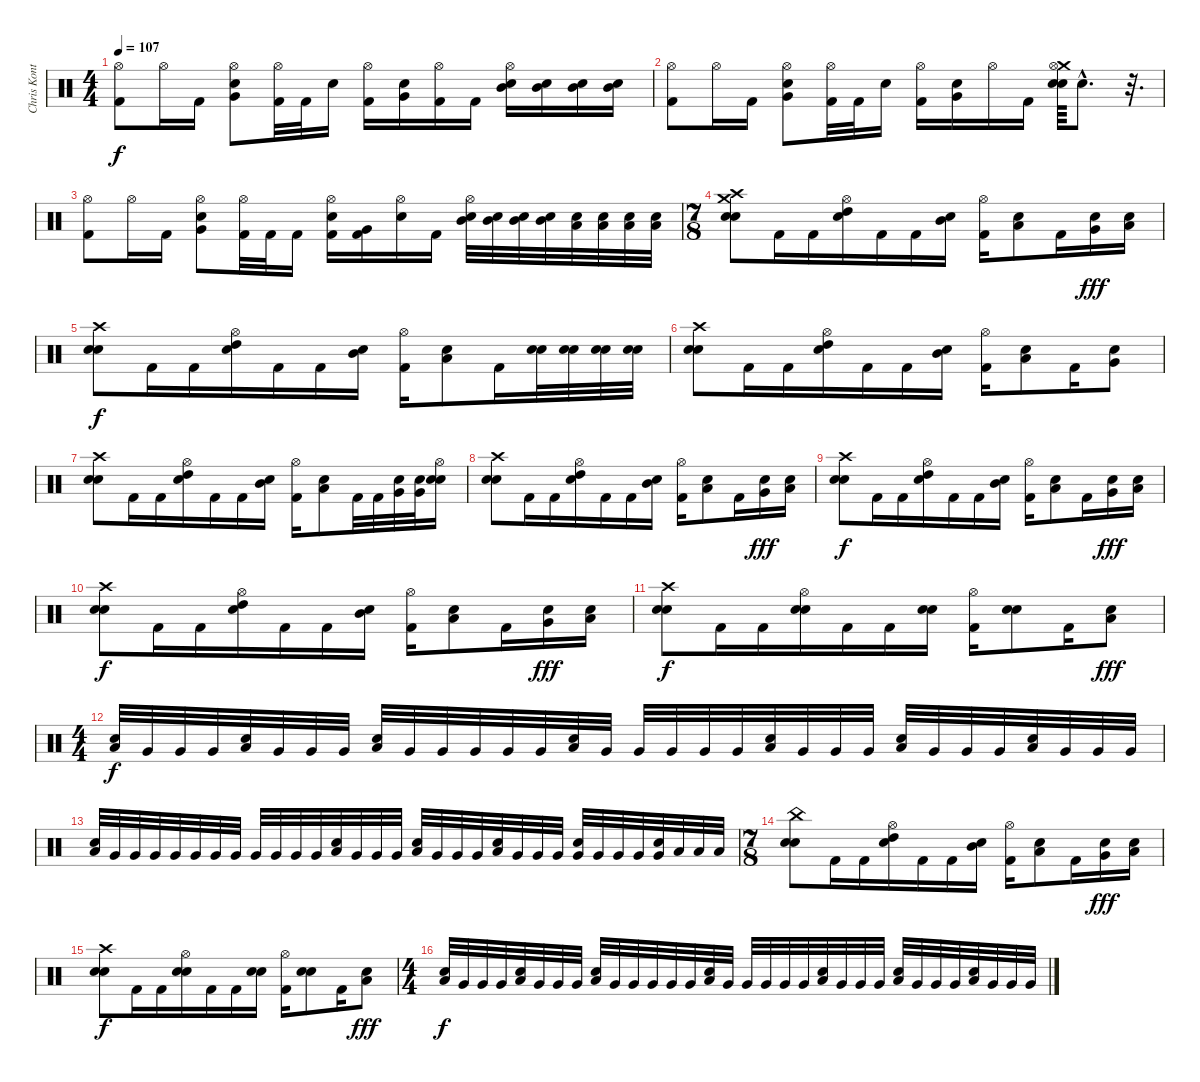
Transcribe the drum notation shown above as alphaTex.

\track ("Chris Kontos" "Chris Kont") {instrument percussion}
\staff {score}
\articulation defaults
\ts (4 4)
\tempo 107
\clef neutral
\ks c
("Hi-Hat (open)" "Kick (hit) 2").8{dy f} "Hi-Hat (open)".16 "Kick (hit) 2".16 ("Very Low Tom (hit)" "Hi-Hat (open)" "Electric Snare (hit)").8 ("Hi-Hat (open)" "Kick (hit) 2").32 "Kick (hit) 2".32 "Electric Snare (hit)".16 ("Hi-Hat (open)" "Kick (hit) 2").16 ("Very Low Tom (hit)" "Electric Snare (hit)").16 ("Hi-Hat (open)" "Kick (hit) 2").16 "Kick (hit) 2".16 ("Mid Tom (hit)" "Hi-Hat (open)" "Electric Snare (hit)").16 ("Mid Tom (hit)" "Electric Snare (hit)").16 ("Mid Tom (hit)" "Electric Snare (hit)").16 ("Mid Tom (hit)" "Electric Snare (hit)").16 |
("Hi-Hat (open)" "Kick (hit) 2").8 "Hi-Hat (open)".16 "Kick (hit) 2".16 ("Very Low Tom (hit)" "Hi-Hat (open)" "Electric Snare (hit)").8 ("Hi-Hat (open)" "Kick (hit) 2").32 "Kick (hit) 2".32 "Electric Snare (hit)".16 ("Hi-Hat (open)" "Kick (hit) 2").16 ("Very Low Tom (hit)" "Electric Snare (hit)").16 "Hi-Hat (open)".16 "Kick (hit) 2".16 ("Snare (hit) 2" "Crash medium (hit)" "Hi-Hat (open)" "Electric Snare (hit)").64 "Snare (hit) 2"{hac}.8{d} r.32{d} |
("Hi-Hat (open)" "Kick (hit) 2").8 "Hi-Hat (open)".16 "Kick (hit) 2".16 ("Very Low Tom (hit)" "Hi-Hat (open)" "Electric Snare (hit)").8 ("Hi-Hat (open)" "Kick (hit) 2").32 "Kick (hit) 2".32 "Kick (hit) 2".16 ("Hi-Hat (open)" "Electric Snare (hit)" "Kick (hit) 2").16 ("Very Low Tom (hit)" "Kick (hit) 2").16 ("Hi-Hat (open)" "Electric Snare (hit)").16 "Kick (hit) 2".16 ("Mid Tom (hit)" "Hi-Hat (open)" "Electric Snare (hit)").32 ("Mid Tom (hit)" "Electric Snare (hit)").32 ("Mid Tom (hit)" "Electric Snare (hit)").32 ("Mid Tom (hit)" "Electric Snare (hit)").32 ("Low Tom (hit)" "Electric Snare (hit)").32 ("Low Tom (hit)" "Electric Snare (hit)").32 ("Low Tom (hit)" "Electric Snare (hit)").32 ("Low Tom (hit)" "Electric Snare (hit)").32 |
\ts (7 8)
("Crash high (hit)" "Snare (hit) 2" "Crash medium (hit)" "Electric Snare (hit)").8 "Kick (hit) 2".16 "Kick (hit) 2".16 ("High Tom (hit)" "Hi-Hat (open)" "Electric Snare (hit)").16 "Kick (hit) 2".16 "Kick (hit) 2".16 ("Mid Tom (hit)" "Snare (hit) 2").16 ("Hi-Hat (open)" "Kick (hit) 2").16 ("Low Tom (hit)" "Electric Snare (hit)").8 "Kick (hit) 2".16 ("Very Low Tom (hit)" "Snare (hit) 2").16{dy fff} ("Low Floor Tom (hit)" "Snare (hit) 2").16 |
("Crash high (hit)" "Snare (hit) 2" "Electric Snare (hit)").8{dy f} "Kick (hit) 2".16 "Kick (hit) 2".16 ("High Tom (hit)" "Hi-Hat (open)" "Snare (hit) 2").16 "Kick (hit) 2".16 "Kick (hit) 2".16 ("Mid Tom (hit)" "Snare (hit) 2").16 ("Hi-Hat (open)" "Kick (hit) 2").16 ("Low Tom (hit)" "Snare (hit) 2").8 "Kick (hit) 2".16 ("Snare (hit) 2" "Electric Snare (hit)").32 ("Snare (hit) 2" "Electric Snare (hit)").32 ("Snare (hit) 2" "Electric Snare (hit)").32 ("Snare (hit) 2" "Electric Snare (hit)").32 |
("Crash high (hit)" "Snare (hit) 2" "Electric Snare (hit)").8 "Kick (hit) 2".16 "Kick (hit) 2".16 ("High Tom (hit)" "Hi-Hat (open)" "Snare (hit) 2").16 "Kick (hit) 2".16 "Kick (hit) 2".16 ("Mid Tom (hit)" "Snare (hit) 2").16 ("Hi-Hat (open)" "Kick (hit) 2").16 ("Low Tom (hit)" "Snare (hit) 2").8 "Kick (hit) 2".16 ("Very Low Tom (hit)" "Electric Snare (hit)").8 |
("Crash high (hit)" "Snare (hit) 2" "Electric Snare (hit)").8 "Kick (hit) 2".16 "Kick (hit) 2".16 ("High Tom (hit)" "Hi-Hat (open)" "Snare (hit) 2").16 "Kick (hit) 2".16 "Kick (hit) 2".16 ("Mid Tom (hit)" "Snare (hit) 2").16 ("Hi-Hat (open)" "Kick (hit) 2").16 ("Low Tom (hit)" "Snare (hit) 2").8 "Kick (hit) 2".32 "Kick (hit) 2".32 ("Very Low Tom (hit)" "Electric Snare (hit)").32 ("Very Low Tom (hit)" "Electric Snare (hit)").32 ("Electric Snare (hit)" "Hi-Hat (open)" "Snare (hit) 2").16 |
("Crash high (hit)" "Snare (hit) 2" "Electric Snare (hit)").8 "Kick (hit) 2".16 "Kick (hit) 2".16 ("High Tom (hit)" "Hi-Hat (open)" "Electric Snare (hit)").16 "Kick (hit) 2".16 "Kick (hit) 2".16 ("Mid Tom (hit)" "Snare (hit) 2").16 ("Hi-Hat (open)" "Kick (hit) 2").16 ("Low Tom (hit)" "Electric Snare (hit)").8 "Kick (hit) 2".16 ("Very Low Tom (hit)" "Snare (hit) 2").16{dy fff} ("Low Floor Tom (hit)" "Snare (hit) 2").16 |
("Crash high (hit)" "Snare (hit) 2" "Electric Snare (hit)").8{dy f} "Kick (hit) 2".16 "Kick (hit) 2".16 ("High Tom (hit)" "Hi-Hat (open)" "Electric Snare (hit)").16 "Kick (hit) 2".16 "Kick (hit) 2".16 ("Mid Tom (hit)" "Snare (hit) 2").16 ("Hi-Hat (open)" "Kick (hit) 2").16 ("Low Tom (hit)" "Electric Snare (hit)").8 "Kick (hit) 2".16 ("Very Low Tom (hit)" "Snare (hit) 2").16{dy fff} ("Low Floor Tom (hit)" "Snare (hit) 2").16 |
("Crash high (hit)" "Snare (hit) 2" "Electric Snare (hit)").8{dy f} "Kick (hit) 2".16 "Kick (hit) 2".16 ("High Tom (hit)" "Hi-Hat (open)" "Electric Snare (hit)").16 "Kick (hit) 2".16 "Kick (hit) 2".16 ("Mid Tom (hit)" "Snare (hit) 2").16 ("Hi-Hat (open)" "Kick (hit) 2").16 ("Low Tom (hit)" "Electric Snare (hit)").8 "Kick (hit) 2".16 ("Very Low Tom (hit)" "Snare (hit) 2").16{dy fff} ("Low Floor Tom (hit)" "Snare (hit) 2").16 |
("Crash high (hit)" "Snare (hit) 2" "Electric Snare (hit)").8{dy f} "Kick (hit) 2".16 "Kick (hit) 2".16 ("Snare (hit) 2" "Hi-Hat (open)" "Electric Snare (hit)").16 "Kick (hit) 2".16 "Kick (hit) 2".16 ("Snare (hit) 2" "Snare (hit) 2").16 ("Hi-Hat (open)" "Kick (hit) 2").16 ("Snare (hit) 2" "Electric Snare (hit)").8 "Kick (hit) 2".16 ("Low Floor Tom (hit)" "Snare (hit) 2").8{dy fff} |
\ts (4 4)
("Low Tom (hit)" "Snare (hit) 2").32{dy f} "Very Low Tom (hit)".32 "Very Low Tom (hit)".32 "Very Low Tom (hit)".32 ("Low Tom (hit)" "Snare (hit) 2").32 "Very Low Tom (hit)".32 "Very Low Tom (hit)".32 "Very Low Tom (hit)".32 ("Low Tom (hit)" "Snare (hit) 2").32 "Very Low Tom (hit)".32 "Very Low Tom (hit)".32 "Very Low Tom (hit)".32 "Very Low Tom (hit)".32 "Very Low Tom (hit)".32 ("Low Tom (hit)" "Snare (hit) 2").32 "Very Low Tom (hit)".32 "Very Low Tom (hit)".32 "Very Low Tom (hit)".32 "Very Low Tom (hit)".32 "Very Low Tom (hit)".32 ("Low Tom (hit)" "Snare (hit) 2").32 "Very Low Tom (hit)".32 "Very Low Tom (hit)".32 "Very Low Tom (hit)".32 ("Low Tom (hit)" "Snare (hit) 2").32 "Very Low Tom (hit)".32 "Very Low Tom (hit)".32 "Very Low Tom (hit)".32 ("Low Tom (hit)" "Snare (hit) 2").32 "Very Low Tom (hit)".32 "Very Low Tom (hit)".32 "Very Low Tom (hit)".32 |
("Low Tom (hit)" "Snare (hit) 2").32 "Very Low Tom (hit)".32 "Very Low Tom (hit)".32 "Very Low Tom (hit)".32 "Very Low Tom (hit)".32 "Very Low Tom (hit)".32 "Very Low Tom (hit)".32 "Very Low Tom (hit)".32 "Very Low Tom (hit)".32 "Very Low Tom (hit)".32 "Very Low Tom (hit)".32 "Very Low Tom (hit)".32 ("Low Tom (hit)" "Snare (hit) 2").32 "Very Low Tom (hit)".32 "Very Low Tom (hit)".32 "Very Low Tom (hit)".32 ("Low Tom (hit)" "Snare (hit) 2").32 "Very Low Tom (hit)".32 "Very Low Tom (hit)".32 "Very Low Tom (hit)".32 ("Low Tom (hit)" "Snare (hit) 2").32 "Very Low Tom (hit)".32 "Very Low Tom (hit)".32 "Very Low Tom (hit)".32 ("Very Low Tom (hit)" "Snare (hit) 2").32 "Very Low Tom (hit)".32 "Very Low Tom (hit)".32 "Very Low Tom (hit)".32 ("Very Low Tom (hit)" "Snare (hit) 2").32 "Low Floor Tom (hit)".32 "Low Floor Tom (hit)".32 "Low Floor Tom (hit)".32 |
\ts (7 8)
("China (hit)" "Snare (hit) 2" "Electric Snare (hit)").8 "Kick (hit) 2".16 "Kick (hit) 2".16 ("High Tom (hit)" "Hi-Hat (open)" "Electric Snare (hit)").16 "Kick (hit) 2".16 "Kick (hit) 2".16 ("Mid Tom (hit)" "Snare (hit) 2").16 ("Hi-Hat (open)" "Kick (hit) 2").16 ("Low Tom (hit)" "Electric Snare (hit)").8 "Kick (hit) 2".16 ("Very Low Tom (hit)" "Snare (hit) 2").16{dy fff} ("Low Floor Tom (hit)" "Snare (hit) 2").16 |
("Crash high (hit)" "Snare (hit) 2" "Electric Snare (hit)").8{dy f} "Kick (hit) 2".16 "Kick (hit) 2".16 ("Snare (hit) 2" "Hi-Hat (open)" "Electric Snare (hit)").16 "Kick (hit) 2".16 "Kick (hit) 2".16 ("Snare (hit) 2" "Snare (hit) 2").16 ("Hi-Hat (open)" "Kick (hit) 2").16 ("Snare (hit) 2" "Electric Snare (hit)").8 "Kick (hit) 2".16 ("Low Floor Tom (hit)" "Snare (hit) 2").8{dy fff} |
\ts (4 4)
("Low Tom (hit)" "Snare (hit) 2").32{dy f} "Very Low Tom (hit)".32 "Very Low Tom (hit)".32 "Very Low Tom (hit)".32 ("Low Tom (hit)" "Snare (hit) 2").32 "Very Low Tom (hit)".32 "Very Low Tom (hit)".32 "Very Low Tom (hit)".32 ("Low Tom (hit)" "Snare (hit) 2").32 "Very Low Tom (hit)".32 "Very Low Tom (hit)".32 "Very Low Tom (hit)".32 "Very Low Tom (hit)".32 "Very Low Tom (hit)".32 ("Low Tom (hit)" "Snare (hit) 2").32 "Very Low Tom (hit)".32 "Very Low Tom (hit)".32 "Very Low Tom (hit)".32 "Very Low Tom (hit)".32 "Very Low Tom (hit)".32 ("Low Tom (hit)" "Snare (hit) 2").32 "Very Low Tom (hit)".32 "Very Low Tom (hit)".32 "Very Low Tom (hit)".32 ("Low Tom (hit)" "Snare (hit) 2").32 "Very Low Tom (hit)".32 "Very Low Tom (hit)".32 "Very Low Tom (hit)".32 ("Low Tom (hit)" "Snare (hit) 2").32 "Very Low Tom (hit)".32 "Very Low Tom (hit)".32 "Very Low Tom (hit)".32
